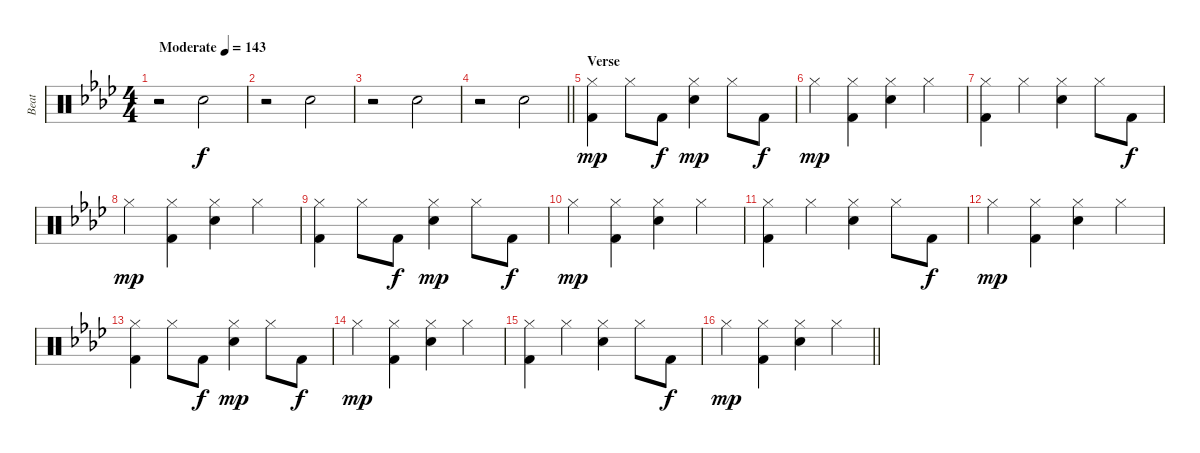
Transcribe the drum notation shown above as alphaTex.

\track ("Beat" "Beat") {instrument percussion}
\staff {score}
\articulation defaults
\ts (4 4)
\tempo (143 "Moderate")
\clef neutral
\ks ab
r.2{dy f} "Hand Clap (hit)".2 |
r.2 "Hand Clap (hit)".2 |
r.2 "Hand Clap (hit)".2 |
\barLineRight lightlight
r.2 "Hand Clap (hit)".2 |
\section ("" "Verse")
("Hi-Hat (closed)" "Kick (hit) 2").4{dy mp} "Hi-Hat (closed)".8 "Kick (hit) 2".8{dy f} ("Hi-Hat (closed)" "Hand Clap (hit)").4{dy mp} "Hi-Hat (closed)".8 "Kick (hit) 2".8{dy f} |
"Hi-Hat (closed)".4{dy mp} ("Hi-Hat (closed)" "Kick (hit) 2").4 ("Hi-Hat (closed)" "Hand Clap (hit)").4 "Hi-Hat (closed)".4 |
("Hi-Hat (closed)" "Kick (hit) 2").4 "Hi-Hat (closed)".4 ("Hi-Hat (closed)" "Hand Clap (hit)").4 "Hi-Hat (closed)".8 "Kick (hit) 2".8{dy f} |
"Hi-Hat (closed)".4{dy mp} ("Hi-Hat (closed)" "Kick (hit) 2").4 ("Hi-Hat (closed)" "Hand Clap (hit)").4 "Hi-Hat (closed)".4 |
("Hi-Hat (closed)" "Kick (hit) 2").4 "Hi-Hat (closed)".8 "Kick (hit) 2".8{dy f} ("Hi-Hat (closed)" "Hand Clap (hit)").4{dy mp} "Hi-Hat (closed)".8 "Kick (hit) 2".8{dy f} |
"Hi-Hat (closed)".4{dy mp} ("Hi-Hat (closed)" "Kick (hit) 2").4 ("Hi-Hat (closed)" "Hand Clap (hit)").4 "Hi-Hat (closed)".4 |
("Hi-Hat (closed)" "Kick (hit) 2").4 "Hi-Hat (closed)".4 ("Hi-Hat (closed)" "Hand Clap (hit)").4 "Hi-Hat (closed)".8 "Kick (hit) 2".8{dy f} |
"Hi-Hat (closed)".4{dy mp} ("Hi-Hat (closed)" "Kick (hit) 2").4 ("Hi-Hat (closed)" "Hand Clap (hit)").4 "Hi-Hat (closed)".4 |
("Hi-Hat (closed)" "Kick (hit) 2").4 "Hi-Hat (closed)".8 "Kick (hit) 2".8{dy f} ("Hi-Hat (closed)" "Hand Clap (hit)").4{dy mp} "Hi-Hat (closed)".8 "Kick (hit) 2".8{dy f} |
"Hi-Hat (closed)".4{dy mp} ("Hi-Hat (closed)" "Kick (hit) 2").4 ("Hi-Hat (closed)" "Hand Clap (hit)").4 "Hi-Hat (closed)".4 |
("Hi-Hat (closed)" "Kick (hit) 2").4 "Hi-Hat (closed)".4 ("Hi-Hat (closed)" "Hand Clap (hit)").4 "Hi-Hat (closed)".8 "Kick (hit) 2".8{dy f} |
\barLineRight lightlight "Hi-Hat (closed)".4{dy mp}
("Hi-Hat (closed)" "Kick (hit) 2").4 ("Hi-Hat (closed)" "Hand Clap (hit)").4 "Hi-Hat (closed)".4
